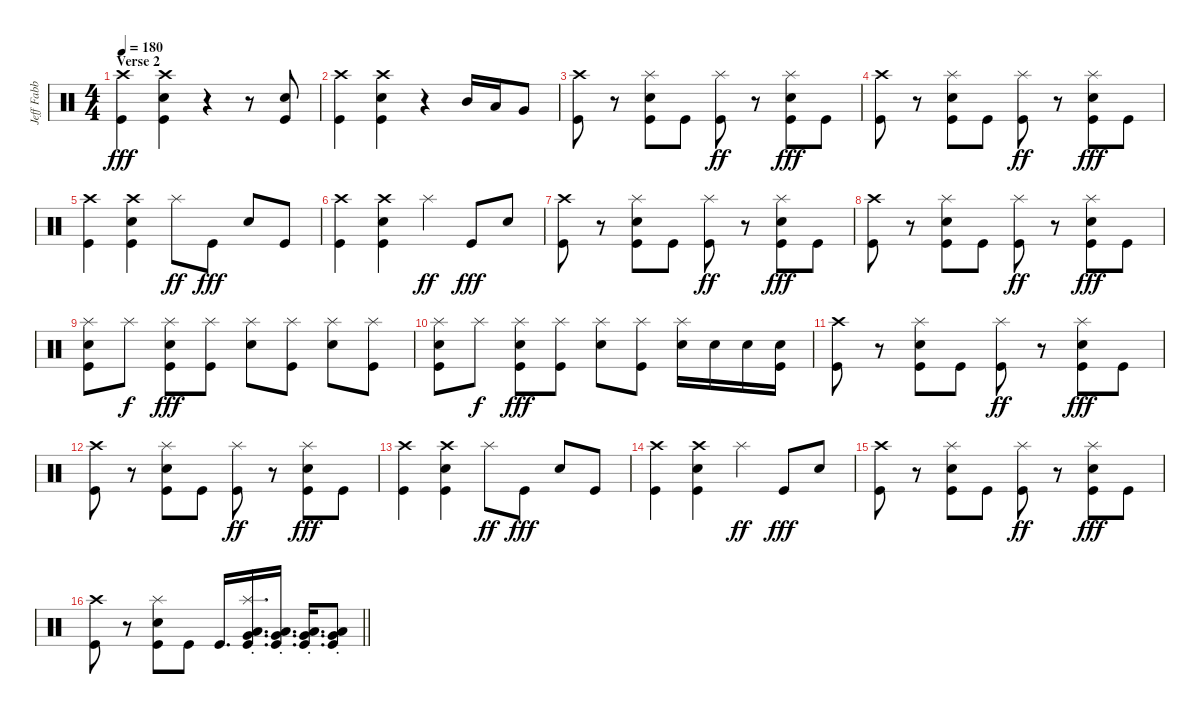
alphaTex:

\track ("Jeff Fabb (Drums)" "Jeff Fabb ") {instrument percussion}
\staff {score}
\articulation defaults
\ts (4 4)
\section ("" "Verse 2")
\tempo 180
\clef neutral
\ks c
("Crash high (hit)" "Kick (hit)").4{dy fff} ("Crash high (hit)" "Electric Snare (hit)" "Kick (hit)").4 r.4 r.8 ("Electric Snare (hit)" "Kick (hit)").8 |
("Crash high (hit)" "Kick (hit)").4 ("Crash high (hit)" "Electric Snare (hit)" "Kick (hit)").4 r.4 "Mid Tom (hit)".16 "Low Tom (hit)".16 "Very Low Tom (hit)".8 |
("Crash high (hit)" "Kick (hit)").8 r.8 ("Splash (hit)" "Electric Snare (hit)" "Kick (hit)").8 "Kick (hit)".8 ("Splash (hit)" "Kick (hit)").8{dy ff} r.8 ("Splash (hit)" "Electric Snare (hit)" "Kick (hit)").8{dy fff} "Kick (hit)".8 |
("Crash high (hit)" "Kick (hit)").8 r.8 ("Splash (hit)" "Electric Snare (hit)" "Kick (hit)").8 "Kick (hit)".8 ("Splash (hit)" "Kick (hit)").8{dy ff} r.8 ("Splash (hit)" "Electric Snare (hit)" "Kick (hit)").8{dy fff} "Kick (hit)".8 |
("Crash high (hit)" "Kick (hit)").4 ("Crash high (hit)" "Electric Snare (hit)" "Kick (hit)").4 "Splash (hit)".8{dy ff} "Kick (hit)".8{dy fff} "Electric Snare (hit)".8 "Kick (hit)".8 |
("Crash high (hit)" "Kick (hit)").4 ("Crash high (hit)" "Electric Snare (hit)" "Kick (hit)").4 "Splash (hit)".4{dy ff} "Kick (hit)".8{dy fff} "Electric Snare (hit)".8 |
("Crash high (hit)" "Kick (hit)").8 r.8 ("Splash (hit)" "Electric Snare (hit)" "Kick (hit)").8 "Kick (hit)".8 ("Splash (hit)" "Kick (hit)").8{dy ff} r.8 ("Splash (hit)" "Electric Snare (hit)" "Kick (hit)").8{dy fff} "Kick (hit)".8 |
("Crash high (hit)" "Kick (hit)").8 r.8 ("Splash (hit)" "Electric Snare (hit)" "Kick (hit)").8 "Kick (hit)".8 ("Splash (hit)" "Kick (hit)").8{dy ff} r.8 ("Splash (hit)" "Electric Snare (hit)" "Kick (hit)").8{dy fff} "Kick (hit)".8 |
("Splash (hit)" "Electric Snare (hit)" "Kick (hit)").8 "Splash (hit)".8{dy f} ("Splash (hit)" "Electric Snare (hit)" "Kick (hit)").8{dy fff} ("Splash (hit)" "Kick (hit)").8 ("Splash (hit)" "Electric Snare (hit)").8 ("Splash (hit)" "Kick (hit)").8 ("Splash (hit)" "Electric Snare (hit)").8 ("Splash (hit)" "Kick (hit)").8 |
("Splash (hit)" "Electric Snare (hit)" "Kick (hit)").8 "Splash (hit)".8{dy f} ("Splash (hit)" "Electric Snare (hit)" "Kick (hit)").8{dy fff} ("Splash (hit)" "Kick (hit)").8 ("Splash (hit)" "Electric Snare (hit)").8 ("Splash (hit)" "Kick (hit)").8 ("Splash (hit)" "Electric Snare (hit)").16 "Electric Snare (hit)".16 "Electric Snare (hit)".16 ("Electric Snare (hit)" "Kick (hit)").16 |
("Crash high (hit)" "Kick (hit)").8 r.8 ("Splash (hit)" "Electric Snare (hit)" "Kick (hit)").8 "Kick (hit)".8 ("Splash (hit)" "Kick (hit)").8{dy ff} r.8 ("Splash (hit)" "Electric Snare (hit)" "Kick (hit)").8{dy fff} "Kick (hit)".8 |
("Crash high (hit)" "Kick (hit)").8 r.8 ("Splash (hit)" "Electric Snare (hit)" "Kick (hit)").8 "Kick (hit)".8 ("Splash (hit)" "Kick (hit)").8{dy ff} r.8 ("Splash (hit)" "Electric Snare (hit)" "Kick (hit)").8{dy fff} "Kick (hit)".8 |
("Crash high (hit)" "Kick (hit)").4 ("Crash high (hit)" "Electric Snare (hit)" "Kick (hit)").4 "Splash (hit)".8{dy ff} "Kick (hit)".8{dy fff} "Electric Snare (hit)".8 "Kick (hit)".8 |
("Crash high (hit)" "Kick (hit)").4 ("Crash high (hit)" "Electric Snare (hit)" "Kick (hit)").4 "Splash (hit)".4{dy ff} "Kick (hit)".8{dy fff} "Electric Snare (hit)".8 |
("Crash high (hit)" "Kick (hit)").8 r.8 ("Splash (hit)" "Electric Snare (hit)" "Kick (hit)").8 "Kick (hit)".8 ("Splash (hit)" "Kick (hit)").8{dy ff} r.8 ("Splash (hit)" "Electric Snare (hit)" "Kick (hit)").8{dy fff} "Kick (hit)".8 |
\barLineRight lightlight
("Crash high (hit)" "Kick (hit)").8 r.8 ("Splash (hit)" "Electric Snare (hit)" "Kick (hit)").8 "Kick (hit)".8 "Kick (hit)".16{d} ("Splash (hit)"{st} "Very Low Tom (hit)"{st} "Low Floor Tom (hit)"{st} "Kick (hit)"{st}).16{d} ("Very Low Tom (hit)"{st} "Low Floor Tom (hit)"{st} "Kick (hit)"{st}).16{d} ("Very Low Tom (hit)"{st} "Low Floor Tom (hit)"{st} "Kick (hit)"{st}).16{d} ("Very Low Tom (hit)"{st} "Low Floor Tom (hit)"{st} "Kick (hit)"{st}).8
